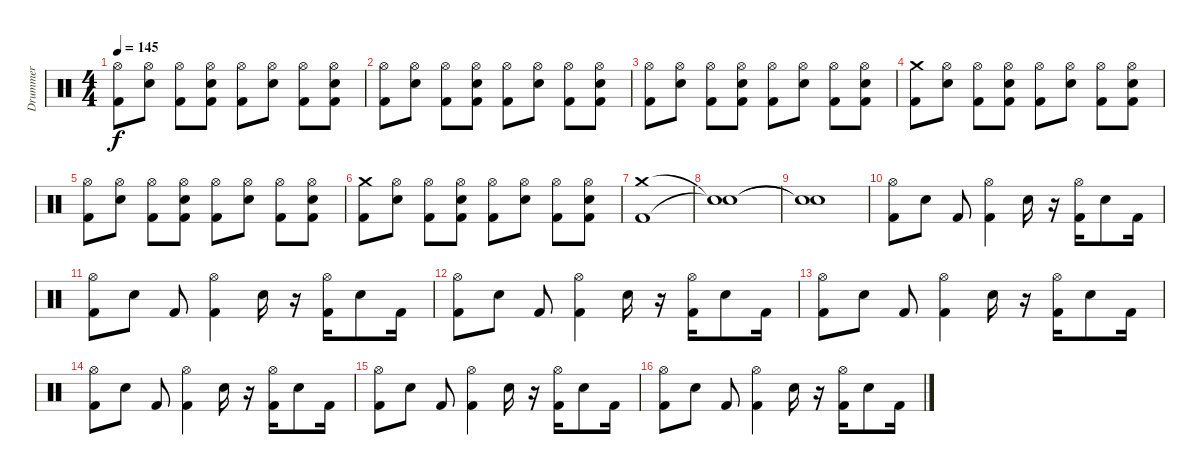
\track ("Drummer" "Drummer") {instrument percussion}
\staff {score}
\articulation defaults
\ts (4 4)
\tempo 145
\clef neutral
\ks c
("Hi-Hat (open)" "Kick (hit) 2").8{dy f} ("Hi-Hat (open)" "Electric Snare (hit)").8 ("Hi-Hat (open)" "Kick (hit) 2").8 ("Hi-Hat (open)" "Electric Snare (hit)" "Kick (hit) 2").8 ("Hi-Hat (open)" "Kick (hit) 2").8 ("Hi-Hat (open)" "Electric Snare (hit)").8 ("Hi-Hat (open)" "Kick (hit) 2").8 ("Hi-Hat (open)" "Electric Snare (hit)" "Kick (hit) 2").8 |
("Hi-Hat (open)" "Kick (hit) 2").8 ("Hi-Hat (open)" "Electric Snare (hit)").8 ("Hi-Hat (open)" "Kick (hit) 2").8 ("Hi-Hat (open)" "Electric Snare (hit)" "Kick (hit) 2").8 ("Hi-Hat (open)" "Kick (hit) 2").8 ("Hi-Hat (open)" "Electric Snare (hit)").8 ("Hi-Hat (open)" "Kick (hit) 2").8 ("Hi-Hat (open)" "Electric Snare (hit)" "Kick (hit) 2").8 |
("Hi-Hat (open)" "Kick (hit) 2").8 ("Hi-Hat (open)" "Electric Snare (hit)").8 ("Hi-Hat (open)" "Kick (hit) 2").8 ("Hi-Hat (open)" "Electric Snare (hit)" "Kick (hit) 2").8 ("Hi-Hat (open)" "Kick (hit) 2").8 ("Hi-Hat (open)" "Electric Snare (hit)").8 ("Hi-Hat (open)" "Kick (hit) 2").8 ("Hi-Hat (open)" "Electric Snare (hit)" "Kick (hit) 2").8 |
("Crash medium (hit)" "Kick (hit) 2").8 ("Hi-Hat (open)" "Electric Snare (hit)").8 ("Hi-Hat (open)" "Kick (hit) 2").8 ("Hi-Hat (open)" "Electric Snare (hit)" "Kick (hit) 2").8 ("Hi-Hat (open)" "Kick (hit) 2").8 ("Hi-Hat (open)" "Electric Snare (hit)").8 ("Hi-Hat (open)" "Kick (hit) 2").8 ("Hi-Hat (open)" "Electric Snare (hit)" "Kick (hit) 2").8 |
("Hi-Hat (open)" "Kick (hit) 2").8 ("Hi-Hat (open)" "Electric Snare (hit)").8 ("Hi-Hat (open)" "Kick (hit) 2").8 ("Hi-Hat (open)" "Electric Snare (hit)" "Kick (hit) 2").8 ("Hi-Hat (open)" "Kick (hit) 2").8 ("Hi-Hat (open)" "Electric Snare (hit)").8 ("Hi-Hat (open)" "Kick (hit) 2").8 ("Hi-Hat (open)" "Electric Snare (hit)" "Kick (hit) 2").8 |
("Crash medium (hit)" "Kick (hit) 2").8 ("Hi-Hat (open)" "Electric Snare (hit)").8 ("Hi-Hat (open)" "Kick (hit) 2").8 ("Hi-Hat (open)" "Electric Snare (hit)" "Kick (hit) 2").8 ("Hi-Hat (open)" "Kick (hit) 2").8 ("Hi-Hat (open)" "Electric Snare (hit)").8 ("Hi-Hat (open)" "Kick (hit) 2").8 ("Hi-Hat (open)" "Electric Snare (hit)" "Kick (hit) 2").8 |
("Crash medium (hit)" "Kick (hit) 2").1 |
("Snare (hit)"{t} "Snare (hit)"{t}).1 |
("Snare (hit)"{t} "Snare (hit)"{t}).1 |
("Hi-Hat (open)" "Kick (hit) 2").8 "Electric Snare (hit)".8 "Kick (hit) 2".8 ("Hi-Hat (open)" "Kick (hit) 2").4 "Electric Snare (hit)".16 r.16 ("Hi-Hat (open)" "Kick (hit) 2").16 "Electric Snare (hit)".8 "Kick (hit) 2".16 |
("Hi-Hat (open)" "Kick (hit) 2").8 "Electric Snare (hit)".8 "Kick (hit) 2".8 ("Hi-Hat (open)" "Kick (hit) 2").4 "Electric Snare (hit)".16 r.16 ("Hi-Hat (open)" "Kick (hit) 2").16 "Electric Snare (hit)".8 "Kick (hit) 2".16 |
("Hi-Hat (open)" "Kick (hit) 2").8 "Electric Snare (hit)".8 "Kick (hit) 2".8 ("Hi-Hat (open)" "Kick (hit) 2").4 "Electric Snare (hit)".16 r.16 ("Hi-Hat (open)" "Kick (hit) 2").16 "Electric Snare (hit)".8 "Kick (hit) 2".16 |
("Hi-Hat (open)" "Kick (hit) 2").8 "Electric Snare (hit)".8 "Kick (hit) 2".8 ("Hi-Hat (open)" "Kick (hit) 2").4 "Electric Snare (hit)".16 r.16 ("Hi-Hat (open)" "Kick (hit) 2").16 "Electric Snare (hit)".8 "Kick (hit) 2".16 |
("Hi-Hat (open)" "Kick (hit) 2").8 "Electric Snare (hit)".8 "Kick (hit) 2".8 ("Hi-Hat (open)" "Kick (hit) 2").4 "Electric Snare (hit)".16 r.16 ("Hi-Hat (open)" "Kick (hit) 2").16 "Electric Snare (hit)".8 "Kick (hit) 2".16 |
("Hi-Hat (open)" "Kick (hit) 2").8 "Electric Snare (hit)".8 "Kick (hit) 2".8 ("Hi-Hat (open)" "Kick (hit) 2").4 "Electric Snare (hit)".16 r.16 ("Hi-Hat (open)" "Kick (hit) 2").16 "Electric Snare (hit)".8 "Kick (hit) 2".16 |
("Hi-Hat (open)" "Kick (hit) 2").8 "Electric Snare (hit)".8 "Kick (hit) 2".8 ("Hi-Hat (open)" "Kick (hit) 2").4 "Electric Snare (hit)".16 r.16 ("Hi-Hat (open)" "Kick (hit) 2").16 "Electric Snare (hit)".8 "Kick (hit) 2".16
